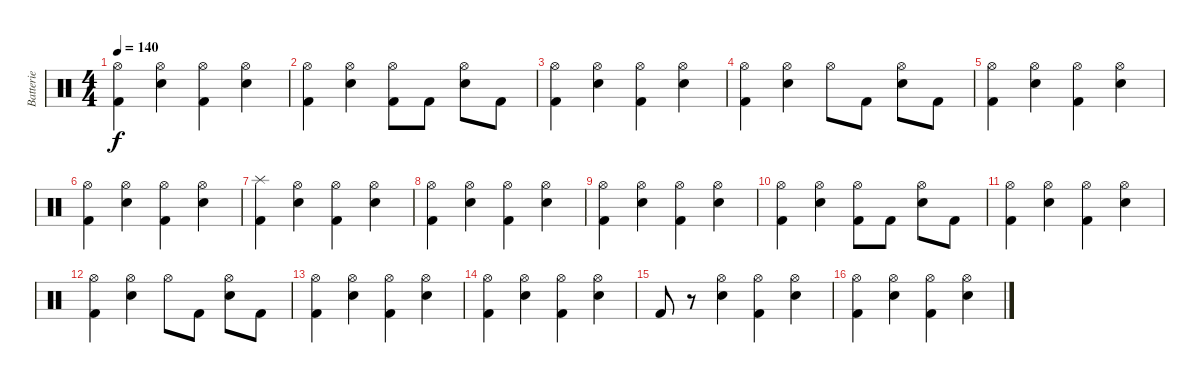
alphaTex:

\track ("Batterie" "Batterie") {instrument percussion}
\staff {score}
\articulation defaults
\ts (4 4)
\tempo 140
\clef neutral
\ks c
("Hi-Hat (open)" "Kick (hit) 2").4{dy f} ("Hi-Hat (open)" "Snare (hit) 2").4 ("Hi-Hat (open)" "Kick (hit) 2").4 ("Hi-Hat (open)" "Snare (hit) 2").4 |
("Hi-Hat (open)" "Kick (hit) 2").4 ("Hi-Hat (open)" "Snare (hit) 2").4 ("Hi-Hat (open)" "Kick (hit) 2").8 "Kick (hit) 2".8 ("Snare (hit) 2" "Hi-Hat (open)").8 "Kick (hit) 2".8 |
("Kick (hit) 2" "Hi-Hat (open)").4 ("Hi-Hat (open)" "Snare (hit) 2").4 ("Hi-Hat (open)" "Kick (hit) 2").4 ("Snare (hit) 2" "Hi-Hat (open)").4 |
("Kick (hit) 2" "Hi-Hat (open)").4 ("Snare (hit) 2" "Hi-Hat (open)").4 "Hi-Hat (open)".8 "Kick (hit) 2".8 ("Snare (hit) 2" "Hi-Hat (open)").8 "Kick (hit) 2".8 |
("Kick (hit) 2" "Hi-Hat (open)").4 ("Snare (hit) 2" "Hi-Hat (open)").4 ("Kick (hit) 2" "Hi-Hat (open)").4 ("Snare (hit) 2" "Hi-Hat (open)").4 |
("Hi-Hat (open)" "Kick (hit) 2").4 ("Snare (hit) 2" "Hi-Hat (open)").4 ("Kick (hit) 2" "Hi-Hat (open)").4 ("Snare (hit) 2" "Hi-Hat (open)").4 |
("Splash (hit)" "Kick (hit) 2").4 ("Hi-Hat (open)" "Snare (hit) 2").4 ("Kick (hit) 2" "Hi-Hat (open)").4 ("Snare (hit) 2" "Hi-Hat (open)").4 |
("Kick (hit) 2" "Hi-Hat (open)").4 ("Hi-Hat (open)" "Snare (hit) 2").4 ("Hi-Hat (open)" "Kick (hit) 2").4 ("Hi-Hat (open)" "Snare (hit) 2").4 |
("Kick (hit) 2" "Hi-Hat (open)").4 ("Snare (hit) 2" "Hi-Hat (open)").4 ("Hi-Hat (open)" "Kick (hit) 2").4 ("Snare (hit) 2" "Hi-Hat (open)").4 |
("Kick (hit) 2" "Hi-Hat (open)").4 ("Snare (hit) 2" "Hi-Hat (open)").4 ("Hi-Hat (open)" "Kick (hit) 2").8 "Kick (hit) 2".8 ("Snare (hit) 2" "Hi-Hat (open)").8 "Kick (hit) 2".8 |
("Kick (hit) 2" "Hi-Hat (open)").4 ("Hi-Hat (open)" "Snare (hit) 2").4 ("Kick (hit) 2" "Hi-Hat (open)").4 ("Hi-Hat (open)" "Snare (hit) 2").4 |
("Hi-Hat (open)" "Kick (hit) 2").4 ("Hi-Hat (open)" "Snare (hit) 2").4 "Hi-Hat (open)".8 "Kick (hit) 2".8 ("Hi-Hat (open)" "Snare (hit) 2").8 "Kick (hit) 2".8 |
("Kick (hit) 2" "Hi-Hat (open)").4 ("Hi-Hat (open)" "Snare (hit) 2").4 ("Hi-Hat (open)" "Kick (hit) 2").4 ("Hi-Hat (open)" "Snare (hit) 2").4 |
("Hi-Hat (open)" "Kick (hit) 2").4 ("Hi-Hat (open)" "Snare (hit) 2").4 ("Hi-Hat (open)" "Kick (hit) 2").4 ("Snare (hit) 2" "Hi-Hat (open)").4 |
"Kick (hit) 2".8 r.8 ("Hi-Hat (open)" "Snare (hit) 2").4 ("Kick (hit) 2" "Hi-Hat (open)").4 ("Snare (hit) 2" "Hi-Hat (open)").4 |
("Hi-Hat (open)" "Kick (hit) 2").4 ("Hi-Hat (open)" "Snare (hit) 2").4 ("Hi-Hat (open)" "Kick (hit) 2").4 ("Hi-Hat (open)" "Snare (hit) 2").4
